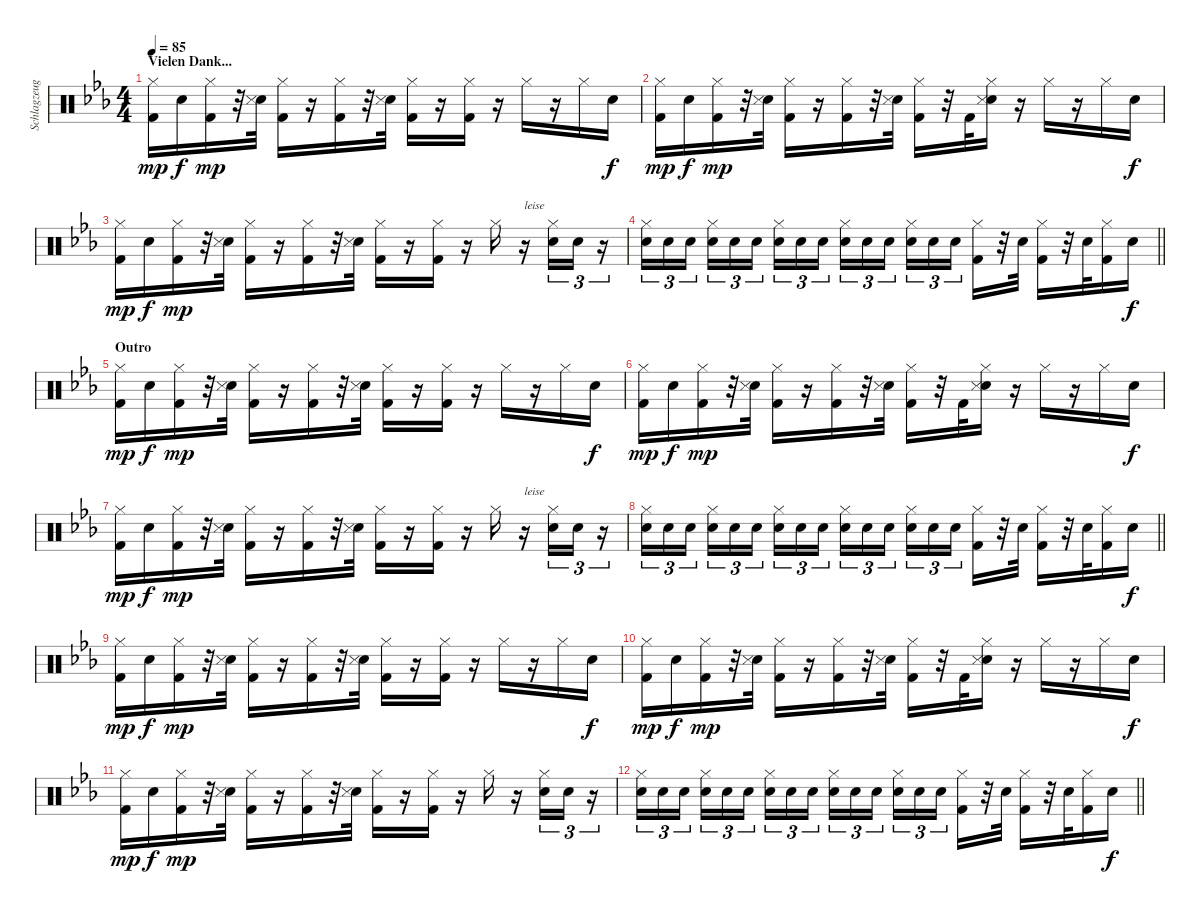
\track ("Schlagzeug" "Schlagzeug") {instrument percussion}
\staff {score}
\articulation defaults
\ts (4 4)
\section ("" "Vielen Dank...")
\tempo 85
\clef neutral
\ks cminor
("Hi-Hat (closed)" "Kick (hit) 2").16{dy mp} "Snare (hit) 2".16{dy f} ("Hi-Hat (closed)" "Kick (hit) 2").16{dy mp} r.32 ("Electric Snare (hit)" "Snare (side stick) 3").32 ("Hi-Hat (closed)" "Kick (hit) 2").16 r.16 ("Hi-Hat (closed)" "Kick (hit) 2").16 r.32 ("Electric Snare (hit)" "Snare (side stick) 3").32 ("Hi-Hat (closed)" "Kick (hit) 2").16 r.16 ("Hi-Hat (closed)" "Kick (hit) 2").16 r.16 "Hi-Hat (closed)".16 r.16 "Hi-Hat (closed)".16 "Snare (hit) 2".16{dy f} |
("Hi-Hat (closed)" "Kick (hit) 2").16{dy mp} "Snare (hit) 2".16{dy f} ("Hi-Hat (closed)" "Kick (hit) 2").16{dy mp} r.32 ("Electric Snare (hit)" "Snare (side stick) 3").32 ("Hi-Hat (closed)" "Kick (hit) 2").16 r.16 ("Hi-Hat (closed)" "Kick (hit) 2").16 r.32 ("Electric Snare (hit)" "Snare (side stick) 3").32 ("Hi-Hat (closed)" "Kick (hit) 2").16 r.32 "Kick (hit) 2".32 ("Hi-Hat (closed)" "Electric Snare (hit)" "Snare (side stick) 3").16 r.16 "Hi-Hat (closed)".16 r.16 "Hi-Hat (closed)".16 "Snare (hit) 2".16{dy f} |
("Hi-Hat (closed)" "Kick (hit) 2").16{dy mp} "Snare (hit) 2".16{dy f} ("Hi-Hat (closed)" "Kick (hit) 2").16{dy mp} r.32 ("Electric Snare (hit)" "Snare (side stick) 3").32 ("Hi-Hat (closed)" "Kick (hit) 2").16 r.16 ("Hi-Hat (closed)" "Kick (hit) 2").16 r.32 ("Electric Snare (hit)" "Snare (side stick) 3").32 ("Hi-Hat (closed)" "Kick (hit) 2").16 r.16 ("Hi-Hat (closed)" "Kick (hit) 2").16 r.16 "Hi-Hat (closed)".16 r.16{txt "leise" volume 5} ("Hi-Hat (closed)" "Electric Snare (hit)").16{tu (3 2)} "Electric Snare (hit)".16{tu (3 2)} r.16{tu (3 2)} |
\barLineRight lightlight
("Hi-Hat (closed)" "Electric Snare (hit)").16{tu (3 2) volume 15} "Electric Snare (hit)".16{tu (3 2)} "Electric Snare (hit)".16{tu (3 2) beam splitsecondary} ("Hi-Hat (closed)" "Electric Snare (hit)").16{tu (3 2)} "Electric Snare (hit)".16{tu (3 2)} "Electric Snare (hit)".16{tu (3 2)} ("Hi-Hat (closed)" "Electric Snare (hit)").16{tu (3 2)} "Electric Snare (hit)".16{tu (3 2)} "Electric Snare (hit)".16{tu (3 2) beam splitsecondary} ("Hi-Hat (closed)" "Electric Snare (hit)").16{tu (3 2)} "Electric Snare (hit)".16{tu (3 2)} "Electric Snare (hit)".16{tu (3 2)} ("Hi-Hat (closed)" "Electric Snare (hit)").16{tu (3 2)} "Electric Snare (hit)".16{tu (3 2)} "Electric Snare (hit)".16{tu (3 2) beam splitsecondary} ("Hi-Hat (closed)" "Kick (hit) 2").16 r.32 "Electric Snare (hit)".32 ("Hi-Hat (closed)" "Kick (hit) 2").16 r.32 "Electric Snare (hit)".32 ("Hi-Hat (closed)" "Kick (hit) 2").16 "Snare (hit) 2".16{dy f} |
\section ("" "Outro")
("Hi-Hat (closed)" "Kick (hit) 2").16{dy mp} "Snare (hit) 2".16{dy f} ("Hi-Hat (closed)" "Kick (hit) 2").16{dy mp} r.32 ("Electric Snare (hit)" "Snare (side stick) 3").32 ("Hi-Hat (closed)" "Kick (hit) 2").16 r.16 ("Hi-Hat (closed)" "Kick (hit) 2").16 r.32 ("Electric Snare (hit)" "Snare (side stick) 3").32 ("Hi-Hat (closed)" "Kick (hit) 2").16 r.16 ("Hi-Hat (closed)" "Kick (hit) 2").16 r.16 "Hi-Hat (closed)".16 r.16 "Hi-Hat (closed)".16 "Snare (hit) 2".16{dy f} |
("Hi-Hat (closed)" "Kick (hit) 2").16{dy mp} "Snare (hit) 2".16{dy f} ("Hi-Hat (closed)" "Kick (hit) 2").16{dy mp} r.32 ("Electric Snare (hit)" "Snare (side stick) 3").32 ("Hi-Hat (closed)" "Kick (hit) 2").16 r.16 ("Hi-Hat (closed)" "Kick (hit) 2").16 r.32 ("Electric Snare (hit)" "Snare (side stick) 3").32 ("Hi-Hat (closed)" "Kick (hit) 2").16 r.32 "Kick (hit) 2".32 ("Hi-Hat (closed)" "Electric Snare (hit)" "Snare (side stick) 3").16 r.16 "Hi-Hat (closed)".16 r.16 "Hi-Hat (closed)".16 "Snare (hit) 2".16{dy f} |
("Hi-Hat (closed)" "Kick (hit) 2").16{dy mp} "Snare (hit) 2".16{dy f} ("Hi-Hat (closed)" "Kick (hit) 2").16{dy mp} r.32 ("Electric Snare (hit)" "Snare (side stick) 3").32 ("Hi-Hat (closed)" "Kick (hit) 2").16 r.16 ("Hi-Hat (closed)" "Kick (hit) 2").16 r.32 ("Electric Snare (hit)" "Snare (side stick) 3").32 ("Hi-Hat (closed)" "Kick (hit) 2").16 r.16 ("Hi-Hat (closed)" "Kick (hit) 2").16 r.16 "Hi-Hat (closed)".16 r.16{txt "leise" volume 5} ("Hi-Hat (closed)" "Electric Snare (hit)").16{tu (3 2)} "Electric Snare (hit)".16{tu (3 2)} r.16{tu (3 2)} |
\barLineRight lightlight
("Hi-Hat (closed)" "Electric Snare (hit)").16{tu (3 2) volume 15} "Electric Snare (hit)".16{tu (3 2)} "Electric Snare (hit)".16{tu (3 2) beam splitsecondary} ("Hi-Hat (closed)" "Electric Snare (hit)").16{tu (3 2)} "Electric Snare (hit)".16{tu (3 2)} "Electric Snare (hit)".16{tu (3 2)} ("Hi-Hat (closed)" "Electric Snare (hit)").16{tu (3 2)} "Electric Snare (hit)".16{tu (3 2)} "Electric Snare (hit)".16{tu (3 2) beam splitsecondary} ("Hi-Hat (closed)" "Electric Snare (hit)").16{tu (3 2)} "Electric Snare (hit)".16{tu (3 2)} "Electric Snare (hit)".16{tu (3 2)} ("Hi-Hat (closed)" "Electric Snare (hit)").16{tu (3 2)} "Electric Snare (hit)".16{tu (3 2)} "Electric Snare (hit)".16{tu (3 2) beam splitsecondary} ("Hi-Hat (closed)" "Kick (hit) 2").16 r.32 "Electric Snare (hit)".32 ("Hi-Hat (closed)" "Kick (hit) 2").16 r.32 "Electric Snare (hit)".32 ("Hi-Hat (closed)" "Kick (hit) 2").16 "Snare (hit) 2".16{dy f} |
("Hi-Hat (closed)" "Kick (hit) 2").16{dy mp} "Snare (hit) 2".16{dy f} ("Hi-Hat (closed)" "Kick (hit) 2").16{dy mp} r.32 ("Electric Snare (hit)" "Snare (side stick) 3").32 ("Hi-Hat (closed)" "Kick (hit) 2").16 r.16 ("Hi-Hat (closed)" "Kick (hit) 2").16 r.32 ("Electric Snare (hit)" "Snare (side stick) 3").32 ("Hi-Hat (closed)" "Kick (hit) 2").16 r.16 ("Hi-Hat (closed)" "Kick (hit) 2").16 r.16 "Hi-Hat (closed)".16 r.16 "Hi-Hat (closed)".16 "Snare (hit) 2".16{dy f} |
("Hi-Hat (closed)" "Kick (hit) 2").16{dy mp} "Snare (hit) 2".16{dy f} ("Hi-Hat (closed)" "Kick (hit) 2").16{dy mp} r.32 ("Electric Snare (hit)" "Snare (side stick) 3").32 ("Hi-Hat (closed)" "Kick (hit) 2").16 r.16 ("Hi-Hat (closed)" "Kick (hit) 2").16 r.32 ("Electric Snare (hit)" "Snare (side stick) 3").32 ("Hi-Hat (closed)" "Kick (hit) 2").16 r.32 "Kick (hit) 2".32 ("Hi-Hat (closed)" "Electric Snare (hit)" "Snare (side stick) 3").16 r.16 "Hi-Hat (closed)".16 r.16 "Hi-Hat (closed)".16 "Snare (hit) 2".16{dy f} |
("Hi-Hat (closed)" "Kick (hit) 2").16{dy mp} "Snare (hit) 2".16{dy f} ("Hi-Hat (closed)" "Kick (hit) 2").16{dy mp} r.32 ("Electric Snare (hit)" "Snare (side stick) 3").32 ("Hi-Hat (closed)" "Kick (hit) 2").16 r.16 ("Hi-Hat (closed)" "Kick (hit) 2").16 r.32 ("Electric Snare (hit)" "Snare (side stick) 3").32 ("Hi-Hat (closed)" "Kick (hit) 2").16 r.16 ("Hi-Hat (closed)" "Kick (hit) 2").16 r.16 "Hi-Hat (closed)".16 r.16 ("Hi-Hat (closed)" "Electric Snare (hit)").16{tu (3 2)} "Electric Snare (hit)".16{tu (3 2)} r.16{tu (3 2)} |
\barLineRight lightlight
("Hi-Hat (closed)" "Electric Snare (hit)").16{tu (3 2)} "Electric Snare (hit)".16{tu (3 2)} "Electric Snare (hit)".16{tu (3 2) beam splitsecondary} ("Hi-Hat (closed)" "Electric Snare (hit)").16{tu (3 2)} "Electric Snare (hit)".16{tu (3 2)} "Electric Snare (hit)".16{tu (3 2)} ("Hi-Hat (closed)" "Electric Snare (hit)").16{tu (3 2)} "Electric Snare (hit)".16{tu (3 2)} "Electric Snare (hit)".16{tu (3 2) beam splitsecondary} ("Hi-Hat (closed)" "Electric Snare (hit)").16{tu (3 2)} "Electric Snare (hit)".16{tu (3 2)} "Electric Snare (hit)".16{tu (3 2)} ("Hi-Hat (closed)" "Electric Snare (hit)").16{tu (3 2)} "Electric Snare (hit)".16{tu (3 2)} "Electric Snare (hit)".16{tu (3 2) beam splitsecondary} ("Hi-Hat (closed)" "Kick (hit) 2").16 r.32 "Electric Snare (hit)".32 ("Hi-Hat (closed)" "Kick (hit) 2").16 r.32 "Electric Snare (hit)".32 ("Hi-Hat (closed)" "Kick (hit) 2").16 "Snare (hit) 2".16{dy f}
